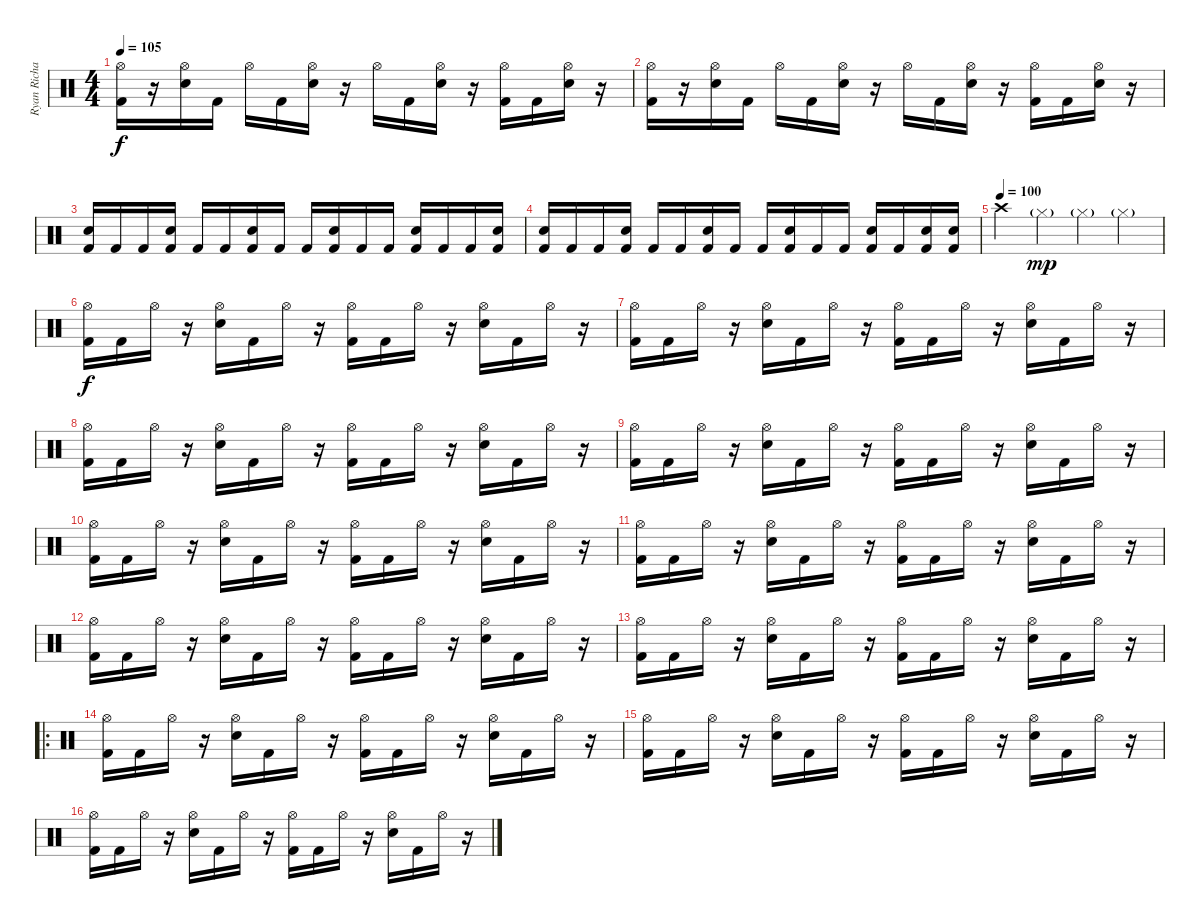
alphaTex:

\track ("Ryan Richards" "Ryan Richa") {instrument percussion}
\staff {score}
\articulation defaults
\ts (4 4)
\tempo 105
\clef neutral
\ks c
("Hi-Hat (open)" "Kick (hit) 2").16{dy f} r.16 ("Hi-Hat (open)" "Snare (hit) 2").16 "Kick (hit) 2".16 "Hi-Hat (open)".16 "Kick (hit) 2".16 ("Hi-Hat (open)" "Snare (hit) 2").16 r.16 "Hi-Hat (open)".16 "Kick (hit) 2".16 ("Hi-Hat (open)" "Snare (hit) 2").16 r.16 ("Hi-Hat (open)" "Kick (hit) 2").16 "Kick (hit) 2".16 ("Hi-Hat (open)" "Snare (hit) 2").16 r.16 |
("Hi-Hat (open)" "Kick (hit) 2").16 r.16 ("Hi-Hat (open)" "Snare (hit) 2").16 "Kick (hit) 2".16 "Hi-Hat (open)".16 "Kick (hit) 2".16 ("Hi-Hat (open)" "Snare (hit) 2").16 r.16 "Hi-Hat (open)".16 "Kick (hit) 2".16 ("Hi-Hat (open)" "Snare (hit) 2").16 r.16 ("Hi-Hat (open)" "Kick (hit) 2").16 "Kick (hit) 2".16 ("Hi-Hat (open)" "Snare (hit) 2").16 r.16 |
("Snare (hit) 2" "Kick (hit) 2").16 "Kick (hit) 2".16 "Kick (hit) 2".16 ("Snare (hit) 2" "Kick (hit) 2").16 "Kick (hit) 2".16 "Kick (hit) 2".16 ("Snare (hit) 2" "Kick (hit) 2").16 "Kick (hit) 2".16 "Kick (hit) 2".16 ("Snare (hit) 2" "Kick (hit) 2").16 "Kick (hit) 2".16 "Kick (hit) 2".16 ("Snare (hit) 2" "Kick (hit) 2").16 "Kick (hit) 2".16 "Kick (hit) 2".16 ("Snare (hit) 2" "Kick (hit) 2").16 |
("Snare (hit) 2" "Kick (hit) 2").16 "Kick (hit) 2".16 "Kick (hit) 2".16 ("Snare (hit) 2" "Kick (hit) 2").16 "Kick (hit) 2".16 "Kick (hit) 2".16 ("Snare (hit) 2" "Kick (hit) 2").16 "Kick (hit) 2".16 "Kick (hit) 2".16 ("Snare (hit) 2" "Kick (hit) 2").16 "Kick (hit) 2".16 "Kick (hit) 2".16 ("Snare (hit) 2" "Kick (hit) 2").16 "Kick (hit) 2".16 ("Snare (hit) 2" "Kick (hit) 2").16 ("Snare (hit) 2" "Kick (hit) 2").16 |
\tempo (100)
"Crash high (hit)".4 "Hi-Hat (closed)"{g}.4{dy mp} "Hi-Hat (closed)"{g}.4 "Hi-Hat (closed)"{g}.4 |
("Hi-Hat (open)" "Kick (hit) 2").16{dy f} "Kick (hit) 2".16 "Hi-Hat (open)".16 r.16 ("Hi-Hat (open)" "Snare (hit) 2").16 "Kick (hit) 2".16 "Hi-Hat (open)".16 r.16 ("Hi-Hat (open)" "Kick (hit) 2").16 "Kick (hit) 2".16 "Hi-Hat (open)".16 r.16 ("Hi-Hat (open)" "Snare (hit) 2").16 "Kick (hit) 2".16 "Hi-Hat (open)".16 r.16 |
("Hi-Hat (open)" "Kick (hit) 2").16 "Kick (hit) 2".16 "Hi-Hat (open)".16 r.16 ("Hi-Hat (open)" "Snare (hit) 2").16 "Kick (hit) 2".16 "Hi-Hat (open)".16 r.16 ("Hi-Hat (open)" "Kick (hit) 2").16 "Kick (hit) 2".16 "Hi-Hat (open)".16 r.16 ("Hi-Hat (open)" "Snare (hit) 2").16 "Kick (hit) 2".16 "Hi-Hat (open)".16 r.16 |
("Hi-Hat (open)" "Kick (hit) 2").16 "Kick (hit) 2".16 "Hi-Hat (open)".16 r.16 ("Hi-Hat (open)" "Snare (hit) 2").16 "Kick (hit) 2".16 "Hi-Hat (open)".16 r.16 ("Hi-Hat (open)" "Kick (hit) 2").16 "Kick (hit) 2".16 "Hi-Hat (open)".16 r.16 ("Hi-Hat (open)" "Snare (hit) 2").16 "Kick (hit) 2".16 "Hi-Hat (open)".16 r.16 |
("Hi-Hat (open)" "Kick (hit) 2").16 "Kick (hit) 2".16 "Hi-Hat (open)".16 r.16 ("Hi-Hat (open)" "Snare (hit) 2").16 "Kick (hit) 2".16 "Hi-Hat (open)".16 r.16 ("Hi-Hat (open)" "Kick (hit) 2").16 "Kick (hit) 2".16 "Hi-Hat (open)".16 r.16 ("Hi-Hat (open)" "Snare (hit) 2").16 "Kick (hit) 2".16 "Hi-Hat (open)".16 r.16 |
("Hi-Hat (open)" "Kick (hit) 2").16 "Kick (hit) 2".16 "Hi-Hat (open)".16 r.16 ("Hi-Hat (open)" "Snare (hit) 2").16 "Kick (hit) 2".16 "Hi-Hat (open)".16 r.16 ("Hi-Hat (open)" "Kick (hit) 2").16 "Kick (hit) 2".16 "Hi-Hat (open)".16 r.16 ("Hi-Hat (open)" "Snare (hit) 2").16 "Kick (hit) 2".16 "Hi-Hat (open)".16 r.16 |
("Hi-Hat (open)" "Kick (hit) 2").16 "Kick (hit) 2".16 "Hi-Hat (open)".16 r.16 ("Hi-Hat (open)" "Snare (hit) 2").16 "Kick (hit) 2".16 "Hi-Hat (open)".16 r.16 ("Hi-Hat (open)" "Kick (hit) 2").16 "Kick (hit) 2".16 "Hi-Hat (open)".16 r.16 ("Hi-Hat (open)" "Snare (hit) 2").16 "Kick (hit) 2".16 "Hi-Hat (open)".16 r.16 |
("Hi-Hat (open)" "Kick (hit) 2").16 "Kick (hit) 2".16 "Hi-Hat (open)".16 r.16 ("Hi-Hat (open)" "Snare (hit) 2").16 "Kick (hit) 2".16 "Hi-Hat (open)".16 r.16 ("Hi-Hat (open)" "Kick (hit) 2").16 "Kick (hit) 2".16 "Hi-Hat (open)".16 r.16 ("Hi-Hat (open)" "Snare (hit) 2").16 "Kick (hit) 2".16 "Hi-Hat (open)".16 r.16 |
("Hi-Hat (open)" "Kick (hit) 2").16 "Kick (hit) 2".16 "Hi-Hat (open)".16 r.16 ("Hi-Hat (open)" "Snare (hit) 2").16 "Kick (hit) 2".16 "Hi-Hat (open)".16 r.16 ("Hi-Hat (open)" "Kick (hit) 2").16 "Kick (hit) 2".16 "Hi-Hat (open)".16 r.16 ("Hi-Hat (open)" "Snare (hit) 2").16 "Kick (hit) 2".16 "Hi-Hat (open)".16 r.16 |
\ro
("Hi-Hat (open)" "Kick (hit) 2").16 "Kick (hit) 2".16 "Hi-Hat (open)".16 r.16 ("Hi-Hat (open)" "Snare (hit) 2").16 "Kick (hit) 2".16 "Hi-Hat (open)".16 r.16 ("Hi-Hat (open)" "Kick (hit) 2").16 "Kick (hit) 2".16 "Hi-Hat (open)".16 r.16 ("Hi-Hat (open)" "Snare (hit) 2").16 "Kick (hit) 2".16 "Hi-Hat (open)".16 r.16 |
("Hi-Hat (open)" "Kick (hit) 2").16 "Kick (hit) 2".16 "Hi-Hat (open)".16 r.16 ("Hi-Hat (open)" "Snare (hit) 2").16 "Kick (hit) 2".16 "Hi-Hat (open)".16 r.16 ("Hi-Hat (open)" "Kick (hit) 2").16 "Kick (hit) 2".16 "Hi-Hat (open)".16 r.16 ("Hi-Hat (open)" "Snare (hit) 2").16 "Kick (hit) 2".16 "Hi-Hat (open)".16 r.16 |
("Hi-Hat (open)" "Kick (hit) 2").16 "Kick (hit) 2".16 "Hi-Hat (open)".16 r.16 ("Hi-Hat (open)" "Snare (hit) 2").16 "Kick (hit) 2".16 "Hi-Hat (open)".16 r.16 ("Hi-Hat (open)" "Kick (hit) 2").16 "Kick (hit) 2".16 "Hi-Hat (open)".16 r.16 ("Hi-Hat (open)" "Snare (hit) 2").16 "Kick (hit) 2".16 "Hi-Hat (open)".16 r.16
